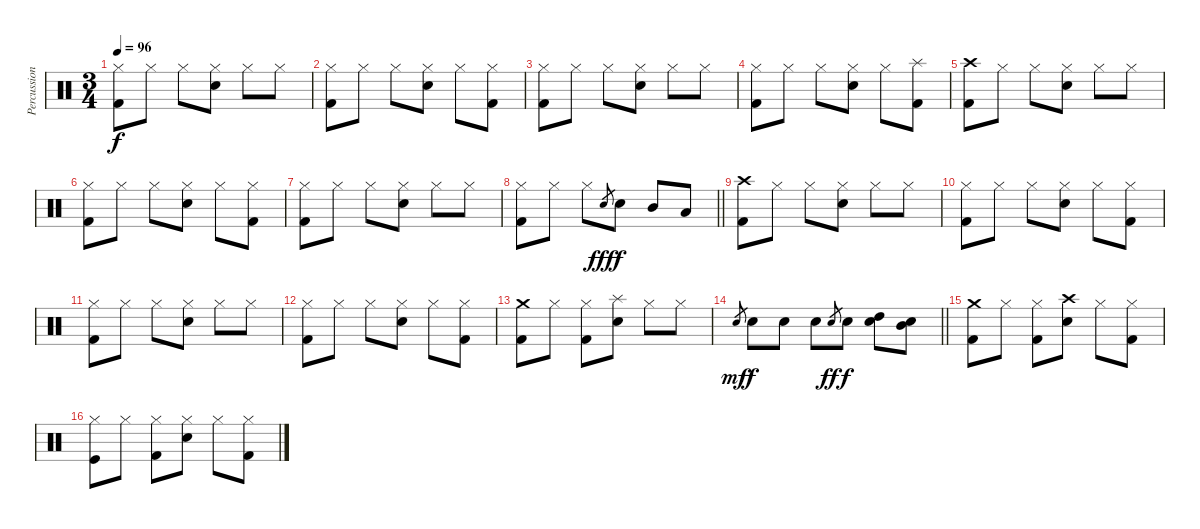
\track ("Percussion" "Percussion") {instrument percussion}
\staff {score}
\articulation defaults
\ts (3 4)
\tempo 96
\clef neutral
\ks c
("Hi-Hat (closed)" "Kick (hit) 2").8{dy f} "Hi-Hat (closed)".8 "Hi-Hat (closed)".8 ("Hi-Hat (closed)" "Snare (hit) 2").8 "Hi-Hat (closed)".8 "Hi-Hat (closed)".8 |
("Hi-Hat (closed)" "Kick (hit) 2").8 "Hi-Hat (closed)".8 "Hi-Hat (closed)".8 ("Hi-Hat (closed)" "Snare (hit) 2").8 "Hi-Hat (closed)".8 ("Hi-Hat (closed)" "Kick (hit) 2").8 |
("Hi-Hat (closed)" "Kick (hit) 2").8 "Hi-Hat (closed)".8 "Hi-Hat (closed)".8 ("Hi-Hat (closed)" "Snare (hit) 2").8 "Hi-Hat (closed)".8 "Hi-Hat (closed)".8 |
("Hi-Hat (closed)" "Kick (hit) 2").8 "Hi-Hat (closed)".8 "Hi-Hat (closed)".8 ("Hi-Hat (closed)" "Snare (hit) 2").8 "Hi-Hat (closed)".8 ("Splash (hit)" "Kick (hit) 2").8 |
("Crash high (hit)" "Kick (hit) 2").8 "Hi-Hat (closed)".8 "Hi-Hat (closed)".8 ("Hi-Hat (closed)" "Snare (hit) 2").8 "Hi-Hat (closed)".8 "Hi-Hat (closed)".8 |
("Hi-Hat (closed)" "Kick (hit) 2").8 "Hi-Hat (closed)".8 "Hi-Hat (closed)".8 ("Hi-Hat (closed)" "Snare (hit) 2").8 "Hi-Hat (closed)".8 ("Hi-Hat (closed)" "Kick (hit) 2").8 |
("Hi-Hat (closed)" "Kick (hit) 2").8 "Hi-Hat (closed)".8 "Hi-Hat (closed)".8 ("Hi-Hat (closed)" "Snare (hit) 2").8 "Hi-Hat (closed)".8 "Hi-Hat (closed)".8 |
\barLineRight lightlight
("Hi-Hat (closed)" "Kick (hit) 2").8 "Hi-Hat (closed)".8 "Hi-Hat (closed)".8 "Snare (hit) 2".8{gr dy fff} "Snare (hit) 2".8{dy f} "Mid Tom (hit)".8 "Low Tom (hit)".8 |
("Crash high (hit)" "Kick (hit) 2").8 "Hi-Hat (closed)".8 "Hi-Hat (closed)".8 ("Hi-Hat (closed)" "Snare (hit) 2").8 "Hi-Hat (closed)".8 "Hi-Hat (closed)".8 |
("Hi-Hat (closed)" "Kick (hit) 2").8 "Hi-Hat (closed)".8 "Hi-Hat (closed)".8 ("Hi-Hat (closed)" "Snare (hit) 2").8 "Hi-Hat (closed)".8 ("Hi-Hat (closed)" "Kick (hit) 2").8 |
("Hi-Hat (closed)" "Kick (hit) 2").8 "Hi-Hat (closed)".8 "Hi-Hat (closed)".8 ("Hi-Hat (closed)" "Snare (hit) 2").8 "Hi-Hat (closed)".8 "Hi-Hat (closed)".8 |
("Hi-Hat (closed)" "Kick (hit) 2").8 "Hi-Hat (closed)".8 "Hi-Hat (closed)".8 ("Hi-Hat (closed)" "Snare (hit) 2").8 "Hi-Hat (closed)".8 ("Hi-Hat (closed)" "Kick (hit) 2").8 |
("Crash medium (hit)" "Kick (hit) 2").8 "Hi-Hat (closed)".8 ("Hi-Hat (closed)" "Kick (hit) 2").8 ("Splash (hit)" "Snare (hit) 2").8 "Hi-Hat (closed)".8 "Hi-Hat (closed)".8 |
\barLineRight lightlight "Snare (hit) 2".8{gr dy mf} "Snare (hit) 2".8{dy f} "Snare (hit) 2".8 "Snare (hit) 2".8 "Snare (hit) 2".8{gr dy ff} "Snare (hit) 2".8{dy f}
("High Tom (hit)" "Snare (hit) 2").8 ("Mid Tom (hit)" "Snare (hit) 2").8 |
("Crash medium (hit)" "Kick (hit) 2").8 "Hi-Hat (closed)".8 ("Hi-Hat (closed)" "Kick (hit) 2").8 ("Crash high (hit)" "Snare (hit) 2").8 "Hi-Hat (closed)".8 ("Hi-Hat (closed)" "Kick (hit) 2").8 |
("Hi-Hat (closed)" "Kick (hit)").8 "Hi-Hat (closed)".8 ("Hi-Hat (closed)" "Kick (hit) 2").8 ("Hi-Hat (closed)" "Snare (hit) 2").8 "Hi-Hat (closed)".8 ("Hi-Hat (closed)" "Kick (hit) 2").8
